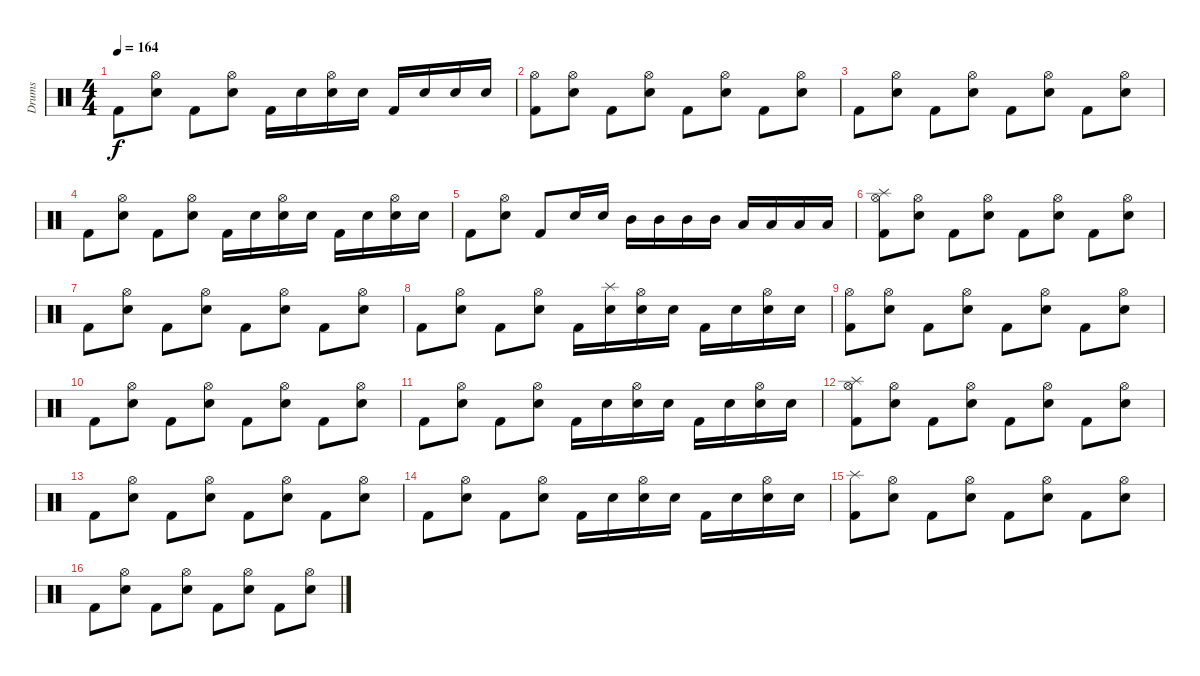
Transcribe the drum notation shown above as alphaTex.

\track ("Drums " "Drums ") {instrument percussion}
\staff {score}
\articulation defaults
\ts (4 4)
\tempo 164
\clef neutral
\ks c "Kick (hit) 2".8{dy f}
("Snare (hit) 2" "Hi-Hat (open)").8 "Kick (hit) 2".8 ("Snare (hit) 2" "Hi-Hat (open)").8 "Kick (hit) 2".16 "Snare (hit) 2".16 ("Snare (hit) 2" "Hi-Hat (open)").16 "Snare (hit) 2".16 "Kick (hit) 2".16 "Snare (hit) 2".16 "Snare (hit) 2".16 "Snare (hit) 2".16 |
("Hi-Hat (open)" "Kick (hit) 2").8 ("Snare (hit) 2" "Hi-Hat (open)").8 "Kick (hit) 2".8 ("Snare (hit) 2" "Hi-Hat (open)").8 "Kick (hit) 2".8 ("Snare (hit) 2" "Hi-Hat (open)").8 "Kick (hit) 2".8 ("Snare (hit) 2" "Hi-Hat (open)").8 |
"Kick (hit) 2".8 ("Snare (hit) 2" "Hi-Hat (open)").8 "Kick (hit) 2".8 ("Snare (hit) 2" "Hi-Hat (open)").8 "Kick (hit) 2".8 ("Snare (hit) 2" "Hi-Hat (open)").8 "Kick (hit) 2".8 ("Snare (hit) 2" "Hi-Hat (open)").8 |
"Kick (hit) 2".8 ("Snare (hit) 2" "Hi-Hat (open)").8 "Kick (hit) 2".8 ("Snare (hit) 2" "Hi-Hat (open)").8 "Kick (hit) 2".16 "Snare (hit) 2".16 ("Snare (hit) 2" "Hi-Hat (open)").16 "Snare (hit) 2".16 "Kick (hit) 2".16 "Snare (hit) 2".16 ("Snare (hit) 2" "Hi-Hat (open)").16 "Snare (hit) 2".16 |
"Kick (hit) 2".8 ("Hi-Hat (open)" "Snare (hit) 2").8 "Kick (hit) 2".8 "Snare (hit) 2".16 "Snare (hit) 2".16 "Mid Tom (hit)".16 "Mid Tom (hit)".16 "Mid Tom (hit)".16 "Mid Tom (hit)".16 "Low Tom (hit)".16 "Low Tom (hit)".16 "Low Tom (hit)".16 "Low Tom (hit)".16 |
("Kick (hit) 2" "Hi-Hat (open)" "Splash (hit)").8 ("Snare (hit) 2" "Hi-Hat (open)").8 "Kick (hit) 2".8 ("Snare (hit) 2" "Hi-Hat (open)").8 "Kick (hit) 2".8 ("Snare (hit) 2" "Hi-Hat (open)").8 "Kick (hit) 2".8 ("Snare (hit) 2" "Hi-Hat (open)").8 |
"Kick (hit) 2".8 ("Snare (hit) 2" "Hi-Hat (open)").8 "Kick (hit) 2".8 ("Snare (hit) 2" "Hi-Hat (open)").8 "Kick (hit) 2".8 ("Snare (hit) 2" "Hi-Hat (open)").8 "Kick (hit) 2".8 ("Snare (hit) 2" "Hi-Hat (open)").8 |
"Kick (hit) 2".8 ("Snare (hit) 2" "Hi-Hat (open)").8 "Kick (hit) 2".8 ("Snare (hit) 2" "Hi-Hat (open)").8 "Kick (hit) 2".16 ("Snare (hit) 2" "Splash (hit)").16 ("Snare (hit) 2" "Hi-Hat (open)").16 "Snare (hit) 2".16 "Kick (hit) 2".16 "Snare (hit) 2".16 ("Snare (hit) 2" "Hi-Hat (open)").16 "Snare (hit) 2".16 |
("Kick (hit) 2" "Hi-Hat (open)").8 ("Snare (hit) 2" "Hi-Hat (open)").8 "Kick (hit) 2".8 ("Snare (hit) 2" "Hi-Hat (open)").8 "Kick (hit) 2".8 ("Snare (hit) 2" "Hi-Hat (open)").8 "Kick (hit) 2".8 ("Snare (hit) 2" "Hi-Hat (open)").8 |
"Kick (hit) 2".8 ("Snare (hit) 2" "Hi-Hat (open)").8 "Kick (hit) 2".8 ("Snare (hit) 2" "Hi-Hat (open)").8 "Kick (hit) 2".8 ("Snare (hit) 2" "Hi-Hat (open)").8 "Kick (hit) 2".8 ("Snare (hit) 2" "Hi-Hat (open)").8 |
"Kick (hit) 2".8 ("Snare (hit) 2" "Hi-Hat (open)").8 "Kick (hit) 2".8 ("Snare (hit) 2" "Hi-Hat (open)").8 "Kick (hit) 2".16 "Snare (hit) 2".16 ("Snare (hit) 2" "Hi-Hat (open)").16 "Snare (hit) 2".16 "Kick (hit) 2".16 "Snare (hit) 2".16 ("Snare (hit) 2" "Hi-Hat (open)").16 "Snare (hit) 2".16 |
("Kick (hit) 2" "Hi-Hat (open)" "Splash (hit)").8 ("Snare (hit) 2" "Hi-Hat (open)").8 "Kick (hit) 2".8 ("Snare (hit) 2" "Hi-Hat (open)").8 "Kick (hit) 2".8 ("Snare (hit) 2" "Hi-Hat (open)").8 "Kick (hit) 2".8 ("Snare (hit) 2" "Hi-Hat (open)").8 |
"Kick (hit) 2".8 ("Snare (hit) 2" "Hi-Hat (open)").8 "Kick (hit) 2".8 ("Snare (hit) 2" "Hi-Hat (open)").8 "Kick (hit) 2".8 ("Snare (hit) 2" "Hi-Hat (open)").8 "Kick (hit) 2".8 ("Snare (hit) 2" "Hi-Hat (open)").8 |
"Kick (hit) 2".8 ("Snare (hit) 2" "Hi-Hat (open)").8 "Kick (hit) 2".8 ("Snare (hit) 2" "Hi-Hat (open)").8 "Kick (hit) 2".16 "Snare (hit) 2".16 ("Snare (hit) 2" "Hi-Hat (open)").16 "Snare (hit) 2".16 "Kick (hit) 2".16 "Snare (hit) 2".16 ("Snare (hit) 2" "Hi-Hat (open)").16 "Snare (hit) 2".16 |
("Splash (hit)" "Kick (hit) 2").8 ("Snare (hit) 2" "Hi-Hat (open)").8 "Kick (hit) 2".8 ("Snare (hit) 2" "Hi-Hat (open)").8 "Kick (hit) 2".8 ("Snare (hit) 2" "Hi-Hat (open)").8 "Kick (hit) 2".8 ("Snare (hit) 2" "Hi-Hat (open)").8 |
"Kick (hit) 2".8 ("Snare (hit) 2" "Hi-Hat (open)").8 "Kick (hit) 2".8 ("Snare (hit) 2" "Hi-Hat (open)").8 "Kick (hit) 2".8 ("Snare (hit) 2" "Hi-Hat (open)").8 "Kick (hit) 2".8 ("Snare (hit) 2" "Hi-Hat (open)").8
